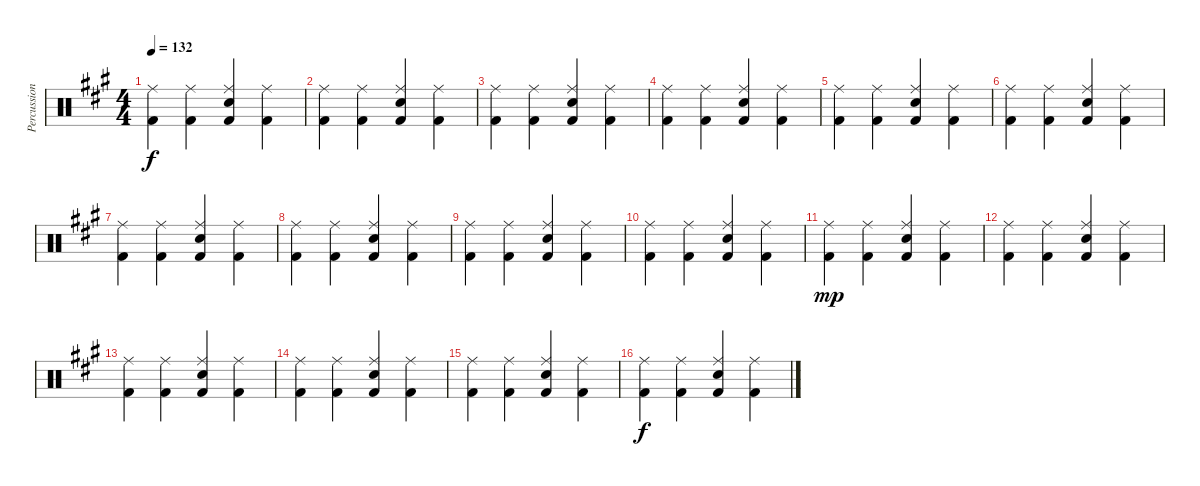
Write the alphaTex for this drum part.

\track ("Percussion" "Percussion") {instrument percussion}
\staff {score}
\articulation defaults
\ts (4 4)
\tempo 132
\clef neutral
\ks a
("Kick (hit) 2" "Ride (middle)").4{dy f} ("Kick (hit) 2" "Ride (middle)").4 ("Kick (hit) 2" "Electric Snare (hit)" "Ride (middle)").4 ("Kick (hit) 2" "Ride (middle)").4 |
("Kick (hit) 2" "Ride (middle)").4 ("Kick (hit) 2" "Ride (middle)").4 ("Kick (hit) 2" "Electric Snare (hit)" "Ride (middle)").4 ("Kick (hit) 2" "Ride (middle)").4 |
("Kick (hit) 2" "Ride (middle)").4 ("Kick (hit) 2" "Ride (middle)").4 ("Kick (hit) 2" "Electric Snare (hit)" "Ride (middle)").4 ("Kick (hit) 2" "Ride (middle)").4 |
("Kick (hit) 2" "Ride (middle)").4 ("Kick (hit) 2" "Ride (middle)").4 ("Kick (hit) 2" "Electric Snare (hit)" "Ride (middle)").4 ("Kick (hit) 2" "Ride (middle)").4 |
("Kick (hit) 2" "Ride (middle)").4 ("Kick (hit) 2" "Ride (middle)").4 ("Kick (hit) 2" "Electric Snare (hit)" "Ride (middle)").4 ("Kick (hit) 2" "Ride (middle)").4 |
("Kick (hit) 2" "Ride (middle)").4 ("Kick (hit) 2" "Ride (middle)").4 ("Kick (hit) 2" "Electric Snare (hit)" "Ride (middle)").4 ("Kick (hit) 2" "Ride (middle)").4 |
("Kick (hit) 2" "Ride (middle)").4 ("Kick (hit) 2" "Ride (middle)").4 ("Kick (hit) 2" "Electric Snare (hit)" "Ride (middle)").4 ("Kick (hit) 2" "Ride (middle)").4 |
("Kick (hit) 2" "Ride (middle)").4 ("Kick (hit) 2" "Ride (middle)").4 ("Kick (hit) 2" "Electric Snare (hit)" "Ride (middle)").4 ("Kick (hit) 2" "Ride (middle)").4 |
("Kick (hit) 2" "Ride (middle)").4 ("Kick (hit) 2" "Ride (middle)").4 ("Kick (hit) 2" "Electric Snare (hit)" "Ride (middle)").4 ("Kick (hit) 2" "Ride (middle)").4 |
("Kick (hit) 2" "Ride (middle)").4 ("Kick (hit) 2" "Ride (middle)").4 ("Kick (hit) 2" "Electric Snare (hit)" "Ride (middle)").4 ("Kick (hit) 2" "Ride (middle)").4 |
("Kick (hit) 2" "Ride (middle)").4{dy mp} ("Kick (hit) 2" "Ride (middle)").4 ("Kick (hit) 2" "Electric Snare (hit)" "Ride (middle)").4 ("Kick (hit) 2" "Ride (middle)").4 |
("Kick (hit) 2" "Ride (middle)").4 ("Kick (hit) 2" "Ride (middle)").4 ("Kick (hit) 2" "Electric Snare (hit)" "Ride (middle)").4 ("Kick (hit) 2" "Ride (middle)").4 |
("Kick (hit) 2" "Ride (middle)").4 ("Kick (hit) 2" "Ride (middle)").4 ("Kick (hit) 2" "Electric Snare (hit)" "Ride (middle)").4 ("Kick (hit) 2" "Ride (middle)").4 |
("Kick (hit) 2" "Ride (middle)").4 ("Kick (hit) 2" "Ride (middle)").4 ("Kick (hit) 2" "Electric Snare (hit)" "Ride (middle)").4 ("Kick (hit) 2" "Ride (middle)").4 |
("Kick (hit) 2" "Ride (middle)").4 ("Kick (hit) 2" "Ride (middle)").4 ("Kick (hit) 2" "Electric Snare (hit)" "Ride (middle)").4 ("Kick (hit) 2" "Ride (middle)").4 |
("Kick (hit) 2" "Ride (middle)").4{dy f} ("Kick (hit) 2" "Ride (middle)").4 ("Kick (hit) 2" "Electric Snare (hit)" "Ride (middle)").4 ("Kick (hit) 2" "Ride (middle)").4
